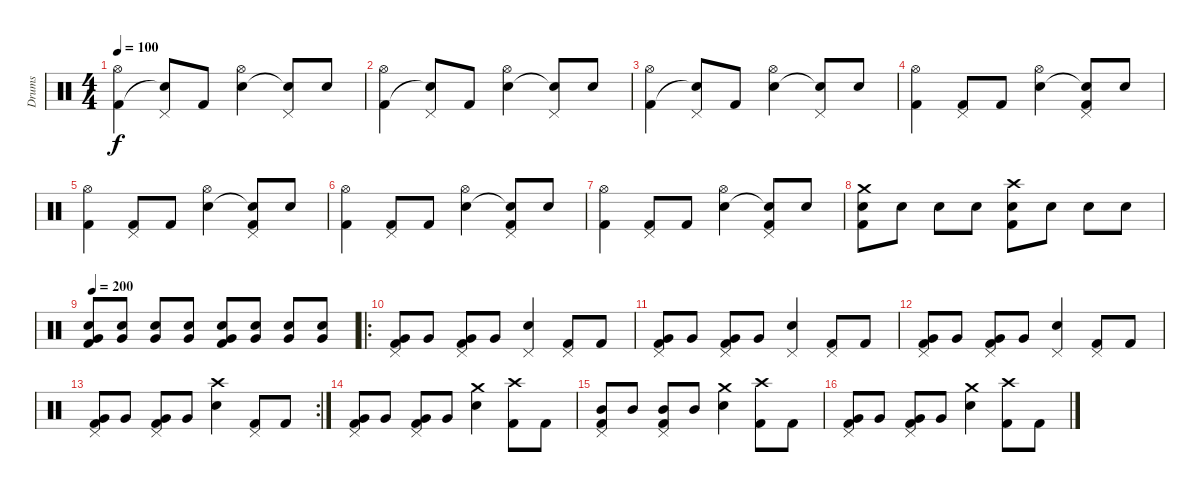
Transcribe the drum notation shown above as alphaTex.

\track ("Drums" "Drums") {instrument percussion}
\staff {score}
\articulation defaults
\ts (4 4)
\tempo 100
\clef neutral
\ks c
("Hi-Hat (open)" "Kick (hit) 2").4{dy f} ("Pedal Hi-Hat (hit)" "Snare (hit)"{t}).8 "Kick (hit) 2".8 ("Hi-Hat (open)" "Electric Snare (hit)").4 ("Pedal Hi-Hat (hit)" "Snare (hit)"{t}).8 "Electric Snare (hit)".8 |
("Hi-Hat (open)" "Kick (hit) 2").4 ("Pedal Hi-Hat (hit)" "Snare (hit)"{t}).8 "Kick (hit) 2".8 ("Hi-Hat (open)" "Electric Snare (hit)").4 ("Pedal Hi-Hat (hit)" "Snare (hit)"{t}).8 "Electric Snare (hit)".8 |
("Hi-Hat (open)" "Kick (hit) 2").4 ("Pedal Hi-Hat (hit)" "Snare (hit)"{t}).8 "Kick (hit) 2".8 ("Hi-Hat (open)" "Electric Snare (hit)").4 ("Pedal Hi-Hat (hit)" "Snare (hit)"{t}).8 "Electric Snare (hit)".8 |
("Hi-Hat (open)" "Kick (hit) 2").4 ("Pedal Hi-Hat (hit)" "Kick (hit) 2").8 "Kick (hit) 2".8 ("Hi-Hat (open)" "Electric Snare (hit)").4 ("Pedal Hi-Hat (hit)" "Snare (hit)"{t} "Kick (hit) 2").8 "Electric Snare (hit)".8 |
("Hi-Hat (open)" "Kick (hit) 2").4 ("Pedal Hi-Hat (hit)" "Kick (hit) 2").8 "Kick (hit) 2".8 ("Hi-Hat (open)" "Electric Snare (hit)").4 ("Pedal Hi-Hat (hit)" "Snare (hit)"{t} "Kick (hit) 2").8 "Electric Snare (hit)".8 |
("Hi-Hat (open)" "Kick (hit) 2").4 ("Pedal Hi-Hat (hit)" "Kick (hit) 2").8 "Kick (hit) 2".8 ("Hi-Hat (open)" "Electric Snare (hit)").4 ("Pedal Hi-Hat (hit)" "Snare (hit)"{t} "Kick (hit) 2").8 "Electric Snare (hit)".8 |
("Hi-Hat (open)" "Kick (hit) 2").4 ("Pedal Hi-Hat (hit)" "Kick (hit) 2").8 "Kick (hit) 2".8 ("Hi-Hat (open)" "Electric Snare (hit)").4 ("Pedal Hi-Hat (hit)" "Snare (hit)"{t} "Kick (hit) 2").8 "Electric Snare (hit)".8 |
("Crash medium (hit)" "Electric Snare (hit)" "Kick (hit) 2").8 "Electric Snare (hit)".8 "Electric Snare (hit)".8 "Electric Snare (hit)".8 ("Crash high (hit)" "Electric Snare (hit)" "Kick (hit) 2").8 "Electric Snare (hit)".8 "Electric Snare (hit)".8 "Electric Snare (hit)".8 |
\tempo 200
("Very Low Tom (hit)" "Electric Snare (hit)" "Kick (hit) 2").8 ("Very Low Tom (hit)" "Electric Snare (hit)").8 ("Very Low Tom (hit)" "Electric Snare (hit)").8 ("Very Low Tom (hit)" "Electric Snare (hit)").8 ("Very Low Tom (hit)" "Electric Snare (hit)" "Kick (hit) 2").8 ("Very Low Tom (hit)" "Electric Snare (hit)").8 ("Very Low Tom (hit)" "Electric Snare (hit)").8 ("Very Low Tom (hit)" "Electric Snare (hit)").8 |
\ro
("Very Low Tom (hit)" "Pedal Hi-Hat (hit)" "Kick (hit) 2").8 "Very Low Tom (hit)".8 ("Very Low Tom (hit)" "Pedal Hi-Hat (hit)" "Kick (hit) 2").8 "Very Low Tom (hit)".8 ("Pedal Hi-Hat (hit)" "Electric Snare (hit)").4 ("Pedal Hi-Hat (hit)" "Kick (hit) 2").8 "Kick (hit) 2".8 |
("Very Low Tom (hit)" "Pedal Hi-Hat (hit)" "Kick (hit) 2").8 "Very Low Tom (hit)".8 ("Very Low Tom (hit)" "Pedal Hi-Hat (hit)" "Kick (hit) 2").8 "Very Low Tom (hit)".8 ("Pedal Hi-Hat (hit)" "Electric Snare (hit)").4 ("Pedal Hi-Hat (hit)" "Kick (hit) 2").8 "Kick (hit) 2".8 |
("Very Low Tom (hit)" "Pedal Hi-Hat (hit)" "Kick (hit) 2").8 "Very Low Tom (hit)".8 ("Very Low Tom (hit)" "Pedal Hi-Hat (hit)" "Kick (hit) 2").8 "Very Low Tom (hit)".8 ("Pedal Hi-Hat (hit)" "Electric Snare (hit)").4 ("Pedal Hi-Hat (hit)" "Kick (hit) 2").8 "Kick (hit) 2".8 |
\rc 2
("Very Low Tom (hit)" "Pedal Hi-Hat (hit)" "Kick (hit) 2").8 "Very Low Tom (hit)".8 ("Very Low Tom (hit)" "Pedal Hi-Hat (hit)" "Kick (hit) 2").8 "Very Low Tom (hit)".8 ("Crash high (hit)" "Electric Snare (hit)").4 ("Pedal Hi-Hat (hit)" "Kick (hit) 2").8 "Kick (hit) 2".8 |
("Very Low Tom (hit)" "Pedal Hi-Hat (hit)" "Kick (hit) 2").8 "Very Low Tom (hit)".8 ("Very Low Tom (hit)" "Pedal Hi-Hat (hit)" "Kick (hit) 2").8 "Very Low Tom (hit)".8 ("Crash medium (hit)" "Electric Snare (hit)").4 ("Crash high (hit)" "Kick (hit) 2").8 "Kick (hit) 2".8 |
("Mid Tom (hit)" "Pedal Hi-Hat (hit)" "Kick (hit) 2").8 "Mid Tom (hit)".8 ("Mid Tom (hit)" "Pedal Hi-Hat (hit)" "Kick (hit) 2").8 "Mid Tom (hit)".8 ("Crash medium (hit)" "Electric Snare (hit)").4 ("Crash high (hit)" "Kick (hit) 2").8 "Kick (hit) 2".8 |
("Very Low Tom (hit)" "Pedal Hi-Hat (hit)" "Kick (hit) 2").8 "Very Low Tom (hit)".8 ("Very Low Tom (hit)" "Pedal Hi-Hat (hit)" "Kick (hit) 2").8 "Very Low Tom (hit)".8 ("Crash medium (hit)" "Electric Snare (hit)").4 ("Crash high (hit)" "Kick (hit) 2").8 "Kick (hit) 2".8
